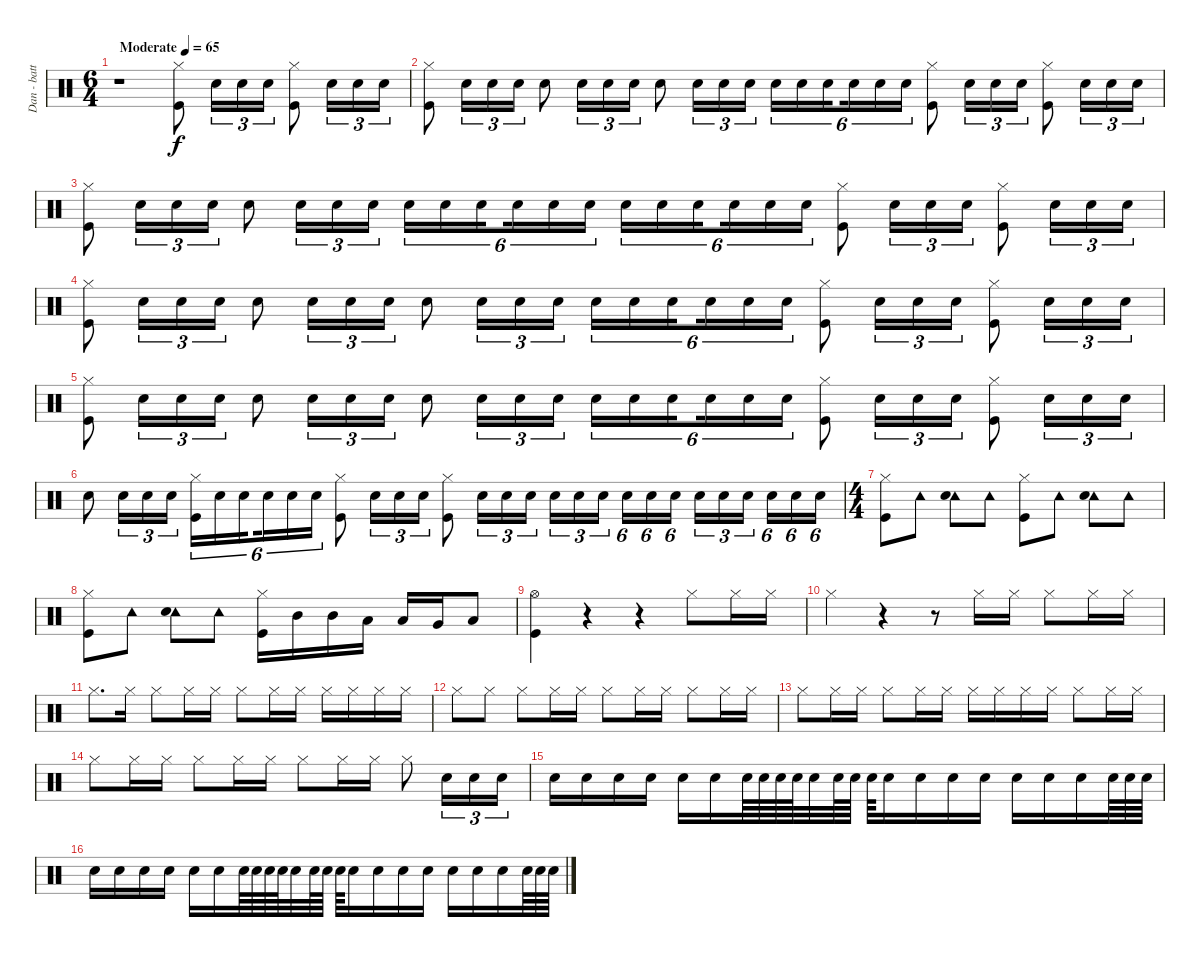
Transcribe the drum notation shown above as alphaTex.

\track ("Dan - batterie" "Dan - batt") {instrument percussion}
\staff {score}
\articulation defaults
\ts (6 4)
\tempo (65 "Moderate")
\clef neutral
\ks c
r.1{dy f} ("Hi-Hat (closed)" "Kick (hit)").8 "Snare (hit) 2".16{tu (3 2)} "Snare (hit) 2".16{tu (3 2)} "Snare (hit) 2".16{tu (3 2)} ("Hi-Hat (closed)" "Kick (hit)").8 "Snare (hit) 2".16{tu (3 2)} "Snare (hit) 2".16{tu (3 2)} "Snare (hit) 2".16{tu (3 2)} |
("Hi-Hat (closed)" "Kick (hit)").8 "Snare (hit) 2".16{tu (3 2)} "Snare (hit) 2".16{tu (3 2)} "Snare (hit) 2".16{tu (3 2)} "Snare (hit) 2".8 "Snare (hit) 2".16{tu (3 2)} "Snare (hit) 2".16{tu (3 2)} "Snare (hit) 2".16{tu (3 2)} "Snare (hit) 2".8 "Snare (hit) 2".16{tu (3 2)} "Snare (hit) 2".16{tu (3 2)} "Snare (hit) 2".16{tu (3 2)} "Snare (hit) 2".16{tu (6 4)} "Snare (hit) 2".16{tu (6 4)} "Snare (hit) 2".16{tu (6 4) beam splitsecondary} "Snare (hit) 2".16{tu (6 4)} "Snare (hit) 2".16{tu (6 4)} "Snare (hit) 2".16{tu (6 4)} ("Hi-Hat (closed)" "Kick (hit)").8 "Snare (hit) 2".16{tu (3 2)} "Snare (hit) 2".16{tu (3 2)} "Snare (hit) 2".16{tu (3 2)} ("Hi-Hat (closed)" "Kick (hit)").8 "Snare (hit) 2".16{tu (3 2)} "Snare (hit) 2".16{tu (3 2)} "Snare (hit) 2".16{tu (3 2)} |
("Hi-Hat (closed)" "Kick (hit)").8 "Snare (hit) 2".16{tu (3 2)} "Snare (hit) 2".16{tu (3 2)} "Snare (hit) 2".16{tu (3 2)} "Snare (hit) 2".8 "Snare (hit) 2".16{tu (3 2)} "Snare (hit) 2".16{tu (3 2)} "Snare (hit) 2".16{tu (3 2) beam splitsecondary} "Snare (hit) 2".16{tu (6 4)} "Snare (hit) 2".16{tu (6 4)} "Snare (hit) 2".16{tu (6 4) beam splitsecondary} "Snare (hit) 2".16{tu (6 4)} "Snare (hit) 2".16{tu (6 4)} "Snare (hit) 2".16{tu (6 4)} "Snare (hit) 2".16{tu (6 4)} "Snare (hit) 2".16{tu (6 4)} "Snare (hit) 2".16{tu (6 4) beam splitsecondary} "Snare (hit) 2".16{tu (6 4)} "Snare (hit) 2".16{tu (6 4)} "Snare (hit) 2".16{tu (6 4)} ("Hi-Hat (closed)" "Kick (hit)").8 "Snare (hit) 2".16{tu (3 2)} "Snare (hit) 2".16{tu (3 2)} "Snare (hit) 2".16{tu (3 2)} ("Hi-Hat (closed)" "Kick (hit)").8 "Snare (hit) 2".16{tu (3 2)} "Snare (hit) 2".16{tu (3 2)} "Snare (hit) 2".16{tu (3 2)} |
("Hi-Hat (closed)" "Kick (hit)").8 "Snare (hit) 2".16{tu (3 2)} "Snare (hit) 2".16{tu (3 2)} "Snare (hit) 2".16{tu (3 2)} "Snare (hit) 2".8 "Snare (hit) 2".16{tu (3 2)} "Snare (hit) 2".16{tu (3 2)} "Snare (hit) 2".16{tu (3 2)} "Snare (hit) 2".8 "Snare (hit) 2".16{tu (3 2)} "Snare (hit) 2".16{tu (3 2)} "Snare (hit) 2".16{tu (3 2)} "Snare (hit) 2".16{tu (6 4)} "Snare (hit) 2".16{tu (6 4)} "Snare (hit) 2".16{tu (6 4) beam splitsecondary} "Snare (hit) 2".16{tu (6 4)} "Snare (hit) 2".16{tu (6 4)} "Snare (hit) 2".16{tu (6 4)} ("Hi-Hat (closed)" "Kick (hit)").8 "Snare (hit) 2".16{tu (3 2)} "Snare (hit) 2".16{tu (3 2)} "Snare (hit) 2".16{tu (3 2)} ("Hi-Hat (closed)" "Kick (hit)").8 "Snare (hit) 2".16{tu (3 2)} "Snare (hit) 2".16{tu (3 2)} "Snare (hit) 2".16{tu (3 2)} |
("Hi-Hat (closed)" "Kick (hit)").8 "Snare (hit) 2".16{tu (3 2)} "Snare (hit) 2".16{tu (3 2)} "Snare (hit) 2".16{tu (3 2)} "Snare (hit) 2".8 "Snare (hit) 2".16{tu (3 2)} "Snare (hit) 2".16{tu (3 2)} "Snare (hit) 2".16{tu (3 2)} "Snare (hit) 2".8 "Snare (hit) 2".16{tu (3 2)} "Snare (hit) 2".16{tu (3 2)} "Snare (hit) 2".16{tu (3 2)} "Snare (hit) 2".16{tu (6 4)} "Snare (hit) 2".16{tu (6 4)} "Snare (hit) 2".16{tu (6 4) beam splitsecondary} "Snare (hit) 2".16{tu (6 4)} "Snare (hit) 2".16{tu (6 4)} "Snare (hit) 2".16{tu (6 4)} ("Hi-Hat (closed)" "Kick (hit)").8 "Snare (hit) 2".16{tu (3 2)} "Snare (hit) 2".16{tu (3 2)} "Snare (hit) 2".16{tu (3 2)} ("Hi-Hat (closed)" "Kick (hit)").8 "Snare (hit) 2".16{tu (3 2)} "Snare (hit) 2".16{tu (3 2)} "Snare (hit) 2".16{tu (3 2)} |
"Snare (hit) 2".8 "Snare (hit) 2".16{tu (3 2)} "Snare (hit) 2".16{tu (3 2)} "Snare (hit) 2".16{tu (3 2) beam splitsecondary} ("Hi-Hat (closed)" "Kick (hit)").16{tu (6 4)} "Snare (hit) 2".16{tu (6 4)} "Snare (hit) 2".16{tu (6 4) beam splitsecondary} "Snare (hit) 2".16{tu (6 4)} "Snare (hit) 2".16{tu (6 4)} "Snare (hit) 2".16{tu (6 4)} ("Hi-Hat (closed)" "Kick (hit)").8 "Snare (hit) 2".16{tu (3 2)} "Snare (hit) 2".16{tu (3 2)} "Snare (hit) 2".16{tu (3 2)} ("Hi-Hat (closed)" "Kick (hit)").8 "Snare (hit) 2".16{tu (3 2)} "Snare (hit) 2".16{tu (3 2)} "Snare (hit) 2".16{tu (3 2) beam splitsecondary} "Snare (hit) 2".16{tu (3 2)} "Snare (hit) 2".16{tu (3 2)} "Snare (hit) 2".16{tu (3 2) beam splitsecondary} "Snare (hit) 2".16{tu (6 4)} "Snare (hit) 2".16{tu (6 4)} "Snare (hit) 2".16{tu (6 4) beam splitsecondary} "Snare (hit) 2".16{tu (3 2)} "Snare (hit) 2".16{tu (3 2)} "Snare (hit) 2".16{tu (3 2) beam splitsecondary} "Snare (hit) 2".16{tu (6 4)} "Snare (hit) 2".16{tu (6 4)} "Snare (hit) 2".16{tu (6 4)} |
\ts (4 4)
("Hi-Hat (closed)" "Kick (hit)").8 "Tambourine (hit)".8 ("Tambourine (hit)" "Snare (hit) 2").8 "Tambourine (hit)".8 ("Hi-Hat (closed)" "Kick (hit)").8 "Tambourine (hit)".8 ("Tambourine (hit)" "Snare (hit) 2").8 "Tambourine (hit)".8 |
("Hi-Hat (closed)" "Kick (hit)").8 "Tambourine (hit)".8 ("Tambourine (hit)" "Snare (hit) 2").8 "Tambourine (hit)".8 ("Hi-Hat (closed)" "Kick (hit)").16 "Mid Tom (hit)".16 "Mid Tom (hit)".16 "Low Tom (hit)".16 "Low Tom (hit)".16 "Very Low Tom (hit)".16 "Low Floor Tom (hit)".8 |
("Hi-Hat (open)" "Kick (hit)").4 r.4 r.4 "Hi-Hat (closed)".8 "Hi-Hat (closed)".16 "Hi-Hat (closed)".16 |
"Hi-Hat (closed)".4 r.4 r.8 "Hi-Hat (closed)".16 "Hi-Hat (closed)".16 "Hi-Hat (closed)".8 "Hi-Hat (closed)".16 "Hi-Hat (closed)".16 |
"Hi-Hat (closed)".8{d} "Hi-Hat (closed)".16 "Hi-Hat (closed)".8 "Hi-Hat (closed)".16 "Hi-Hat (closed)".16 "Hi-Hat (closed)".8 "Hi-Hat (closed)".16 "Hi-Hat (closed)".16 "Hi-Hat (closed)".16 "Hi-Hat (closed)".16 "Hi-Hat (closed)".16 "Hi-Hat (closed)".16 |
"Hi-Hat (closed)".8 "Hi-Hat (closed)".8 "Hi-Hat (closed)".8 "Hi-Hat (closed)".16 "Hi-Hat (closed)".16 "Hi-Hat (closed)".8 "Hi-Hat (closed)".16 "Hi-Hat (closed)".16 "Hi-Hat (closed)".8 "Hi-Hat (closed)".16 "Hi-Hat (closed)".16 |
"Hi-Hat (closed)".8 "Hi-Hat (closed)".16 "Hi-Hat (closed)".16 "Hi-Hat (closed)".8 "Hi-Hat (closed)".16 "Hi-Hat (closed)".16 "Hi-Hat (closed)".16 "Hi-Hat (closed)".16 "Hi-Hat (closed)".16 "Hi-Hat (closed)".16 "Hi-Hat (closed)".8 "Hi-Hat (closed)".16 "Hi-Hat (closed)".16 |
"Hi-Hat (closed)".8 "Hi-Hat (closed)".16 "Hi-Hat (closed)".16 "Hi-Hat (closed)".8 "Hi-Hat (closed)".16 "Hi-Hat (closed)".16 "Hi-Hat (closed)".8 "Hi-Hat (closed)".16 "Hi-Hat (closed)".16 "Hi-Hat (closed)".8 "Snare (hit) 2".16{tu (3 2)} "Snare (hit) 2".16{tu (3 2)} "Snare (hit) 2".16{tu (3 2)} |
"Snare (hit) 2".16 "Snare (hit) 2".16 "Snare (hit) 2".16 "Snare (hit) 2".16 "Snare (hit) 2".16 "Snare (hit) 2".16 "Snare (hit) 2".64 "Snare (hit) 2".64 "Snare (hit) 2".64 "Snare (hit) 2".64 "Snare (hit) 2".32 "Snare (hit) 2".64 "Snare (hit) 2".64 "Snare (hit) 2".64 "Snare (hit) 2".16 "Snare (hit) 2".16 "Snare (hit) 2".16 "Snare (hit) 2".16 "Snare (hit) 2".16 "Snare (hit) 2".16 "Snare (hit) 2".16 "Snare (hit) 2".64 "Snare (hit) 2".64 "Snare (hit) 2".64 |
"Snare (hit) 2".16 "Snare (hit) 2".16 "Snare (hit) 2".16 "Snare (hit) 2".16 "Snare (hit) 2".16 "Snare (hit) 2".16 "Snare (hit) 2".64 "Snare (hit) 2".64 "Snare (hit) 2".64 "Snare (hit) 2".64 "Snare (hit) 2".32 "Snare (hit) 2".64 "Snare (hit) 2".64 "Snare (hit) 2".64 "Snare (hit) 2".16 "Snare (hit) 2".16 "Snare (hit) 2".16 "Snare (hit) 2".16 "Snare (hit) 2".16 "Snare (hit) 2".16 "Snare (hit) 2".16 "Snare (hit) 2".64 "Snare (hit) 2".64 "Snare (hit) 2".64
